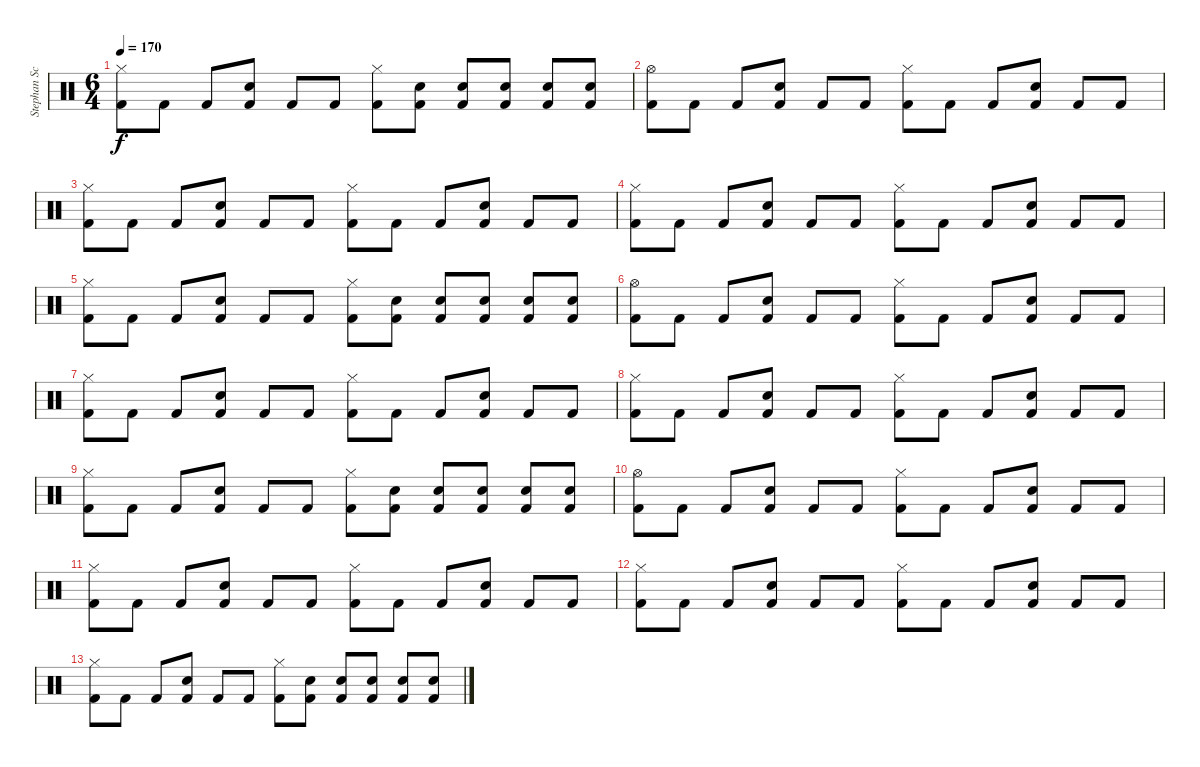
\track ("Stephan Schwartzmann" "Stephan Sc") {instrument percussion}
\staff {score}
\articulation defaults
\ts (6 4)
\tempo 170
\clef neutral
\ks c
("Hi-Hat (closed)" "Kick (hit) 2").8{dy f} "Kick (hit) 2".8 "Kick (hit) 2".8 ("Snare (hit) 2" "Kick (hit) 2").8 "Kick (hit) 2".8 "Kick (hit) 2".8 ("Hi-Hat (closed)" "Kick (hit) 2").8 ("Snare (hit) 2" "Kick (hit) 2").8 ("Snare (hit) 2" "Kick (hit) 2").8 ("Snare (hit) 2" "Kick (hit) 2").8 ("Snare (hit) 2" "Kick (hit) 2").8 ("Snare (hit) 2" "Kick (hit) 2").8 |
("Hi-Hat (open)" "Kick (hit) 2").8 "Kick (hit) 2".8 "Kick (hit) 2".8 ("Snare (hit) 2" "Kick (hit) 2").8 "Kick (hit) 2".8 "Kick (hit) 2".8 ("Hi-Hat (closed)" "Kick (hit) 2").8 "Kick (hit) 2".8 "Kick (hit) 2".8 ("Snare (hit) 2" "Kick (hit) 2").8 "Kick (hit) 2".8 "Kick (hit) 2".8 |
("Hi-Hat (closed)" "Kick (hit) 2").8 "Kick (hit) 2".8 "Kick (hit) 2".8 ("Snare (hit) 2" "Kick (hit) 2").8 "Kick (hit) 2".8 "Kick (hit) 2".8 ("Hi-Hat (closed)" "Kick (hit) 2").8 "Kick (hit) 2".8 "Kick (hit) 2".8 ("Snare (hit) 2" "Kick (hit) 2").8 "Kick (hit) 2".8 "Kick (hit) 2".8 |
("Hi-Hat (closed)" "Kick (hit) 2").8 "Kick (hit) 2".8 "Kick (hit) 2".8 ("Snare (hit) 2" "Kick (hit) 2").8 "Kick (hit) 2".8 "Kick (hit) 2".8 ("Hi-Hat (closed)" "Kick (hit) 2").8 "Kick (hit) 2".8 "Kick (hit) 2".8 ("Snare (hit) 2" "Kick (hit) 2").8 "Kick (hit) 2".8 "Kick (hit) 2".8 |
("Hi-Hat (closed)" "Kick (hit) 2").8 "Kick (hit) 2".8 "Kick (hit) 2".8 ("Snare (hit) 2" "Kick (hit) 2").8 "Kick (hit) 2".8 "Kick (hit) 2".8 ("Hi-Hat (closed)" "Kick (hit) 2").8 ("Snare (hit) 2" "Kick (hit) 2").8 ("Snare (hit) 2" "Kick (hit) 2").8 ("Snare (hit) 2" "Kick (hit) 2").8 ("Snare (hit) 2" "Kick (hit) 2").8 ("Snare (hit) 2" "Kick (hit) 2").8 |
("Hi-Hat (open)" "Kick (hit) 2").8 "Kick (hit) 2".8 "Kick (hit) 2".8 ("Snare (hit) 2" "Kick (hit) 2").8 "Kick (hit) 2".8 "Kick (hit) 2".8 ("Hi-Hat (closed)" "Kick (hit) 2").8 "Kick (hit) 2".8 "Kick (hit) 2".8 ("Snare (hit) 2" "Kick (hit) 2").8 "Kick (hit) 2".8 "Kick (hit) 2".8 |
("Hi-Hat (closed)" "Kick (hit) 2").8 "Kick (hit) 2".8 "Kick (hit) 2".8 ("Snare (hit) 2" "Kick (hit) 2").8 "Kick (hit) 2".8 "Kick (hit) 2".8 ("Hi-Hat (closed)" "Kick (hit) 2").8 "Kick (hit) 2".8 "Kick (hit) 2".8 ("Snare (hit) 2" "Kick (hit) 2").8 "Kick (hit) 2".8 "Kick (hit) 2".8 |
("Hi-Hat (closed)" "Kick (hit) 2").8 "Kick (hit) 2".8 "Kick (hit) 2".8 ("Snare (hit) 2" "Kick (hit) 2").8 "Kick (hit) 2".8 "Kick (hit) 2".8 ("Hi-Hat (closed)" "Kick (hit) 2").8 "Kick (hit) 2".8 "Kick (hit) 2".8 ("Snare (hit) 2" "Kick (hit) 2").8 "Kick (hit) 2".8 "Kick (hit) 2".8 |
("Hi-Hat (closed)" "Kick (hit) 2").8 "Kick (hit) 2".8 "Kick (hit) 2".8 ("Snare (hit) 2" "Kick (hit) 2").8 "Kick (hit) 2".8 "Kick (hit) 2".8 ("Hi-Hat (closed)" "Kick (hit) 2").8 ("Snare (hit) 2" "Kick (hit) 2").8 ("Snare (hit) 2" "Kick (hit) 2").8 ("Snare (hit) 2" "Kick (hit) 2").8 ("Snare (hit) 2" "Kick (hit) 2").8 ("Snare (hit) 2" "Kick (hit) 2").8 |
("Hi-Hat (open)" "Kick (hit) 2").8 "Kick (hit) 2".8 "Kick (hit) 2".8 ("Snare (hit) 2" "Kick (hit) 2").8 "Kick (hit) 2".8 "Kick (hit) 2".8 ("Hi-Hat (closed)" "Kick (hit) 2").8 "Kick (hit) 2".8 "Kick (hit) 2".8 ("Snare (hit) 2" "Kick (hit) 2").8 "Kick (hit) 2".8 "Kick (hit) 2".8 |
("Hi-Hat (closed)" "Kick (hit) 2").8 "Kick (hit) 2".8 "Kick (hit) 2".8 ("Snare (hit) 2" "Kick (hit) 2").8 "Kick (hit) 2".8 "Kick (hit) 2".8 ("Hi-Hat (closed)" "Kick (hit) 2").8 "Kick (hit) 2".8 "Kick (hit) 2".8 ("Snare (hit) 2" "Kick (hit) 2").8 "Kick (hit) 2".8 "Kick (hit) 2".8 |
("Hi-Hat (closed)" "Kick (hit) 2").8 "Kick (hit) 2".8 "Kick (hit) 2".8 ("Snare (hit) 2" "Kick (hit) 2").8 "Kick (hit) 2".8 "Kick (hit) 2".8 ("Hi-Hat (closed)" "Kick (hit) 2").8 "Kick (hit) 2".8 "Kick (hit) 2".8 ("Snare (hit) 2" "Kick (hit) 2").8 "Kick (hit) 2".8 "Kick (hit) 2".8 |
("Hi-Hat (closed)" "Kick (hit) 2").8 "Kick (hit) 2".8 "Kick (hit) 2".8 ("Snare (hit) 2" "Kick (hit) 2").8 "Kick (hit) 2".8 "Kick (hit) 2".8 ("Hi-Hat (closed)" "Kick (hit) 2").8 ("Snare (hit) 2" "Kick (hit) 2").8 ("Snare (hit) 2" "Kick (hit) 2").8 ("Snare (hit) 2" "Kick (hit) 2").8 ("Snare (hit) 2" "Kick (hit) 2").8 ("Snare (hit) 2" "Kick (hit) 2").8
